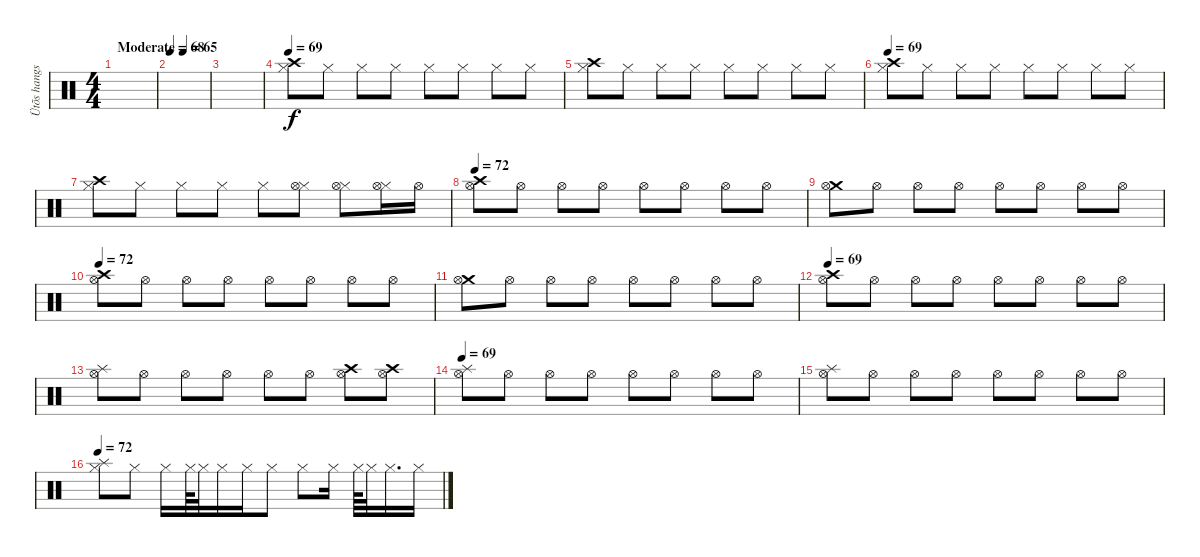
\track ("Ütõs hangszer" "Ütõs hangs") {instrument percussion}
\staff {score}
\articulation defaults
\ts (4 4)
\tempo (65 "Moderate")
\tempo 136
\tempo (65 "Moderate")
\clef neutral
\ks c
|
\tempo 68
|
|
\tempo 69
("Hi-Hat (closed)" "Crash high (hit)").8 "Hi-Hat (closed)".8 "Hi-Hat (closed)".8 "Hi-Hat (closed)".8 "Hi-Hat (closed)".8 "Hi-Hat (closed)".8 "Hi-Hat (closed)".8 "Hi-Hat (closed)".8 |
("Hi-Hat (closed)" "Crash high (hit)").8 "Hi-Hat (closed)".8 "Hi-Hat (closed)".8 "Hi-Hat (closed)".8 "Hi-Hat (closed)".8 "Hi-Hat (closed)".8 "Hi-Hat (closed)".8 "Hi-Hat (closed)".8 |
\tempo 69
("Hi-Hat (closed)" "Crash high (hit)").8 "Hi-Hat (closed)".8 "Hi-Hat (closed)".8 "Hi-Hat (closed)".8 "Hi-Hat (closed)".8 "Hi-Hat (closed)".8 "Hi-Hat (closed)".8 "Hi-Hat (closed)".8 |
("Hi-Hat (closed)" "Crash high (hit)").8 "Hi-Hat (closed)".8 "Hi-Hat (closed)".8 "Hi-Hat (closed)".8 "Hi-Hat (closed)".8 ("Hi-Hat (closed)" "Hi-Hat (open)").8 ("Hi-Hat (closed)" "Hi-Hat (open)").8 ("Hi-Hat (closed)" "Hi-Hat (open)").16 "Hi-Hat (open)".16 |
\tempo 72
("Crash high (hit)" "Hi-Hat (open)").8 "Hi-Hat (open)".8 "Hi-Hat (open)".8 "Hi-Hat (open)".8 "Hi-Hat (open)".8 "Hi-Hat (open)".8 "Hi-Hat (open)".8 "Hi-Hat (open)".8 |
("Crash medium (hit)" "Hi-Hat (open)").8 "Hi-Hat (open)".8 "Hi-Hat (open)".8 "Hi-Hat (open)".8 "Hi-Hat (open)".8 "Hi-Hat (open)".8 "Hi-Hat (open)".8 "Hi-Hat (open)".8 |
\tempo 72
("Crash high (hit)" "Hi-Hat (open)").8 "Hi-Hat (open)".8 "Hi-Hat (open)".8 "Hi-Hat (open)".8 "Hi-Hat (open)".8 "Hi-Hat (open)".8 "Hi-Hat (open)".8 "Hi-Hat (open)".8 |
("Crash medium (hit)" "Hi-Hat (open)").8 "Hi-Hat (open)".8 "Hi-Hat (open)".8 "Hi-Hat (open)".8 "Hi-Hat (open)".8 "Hi-Hat (open)".8 "Hi-Hat (open)".8 "Hi-Hat (open)".8 |
\tempo 69
("Crash high (hit)" "Hi-Hat (open)").8 "Hi-Hat (open)".8 "Hi-Hat (open)".8 "Hi-Hat (open)".8 "Hi-Hat (open)".8 "Hi-Hat (open)".8 "Hi-Hat (open)".8 "Hi-Hat (open)".8 |
("Splash (hit)" "Hi-Hat (open)").8 "Hi-Hat (open)".8 "Hi-Hat (open)".8 "Hi-Hat (open)".8 "Hi-Hat (open)".8 "Hi-Hat (open)".8 ("Crash high (hit)" "Hi-Hat (open)").8 ("Crash high (hit)" "Hi-Hat (open)").8 |
\tempo 69
("Splash (hit)" "Hi-Hat (open)").8 "Hi-Hat (open)".8 "Hi-Hat (open)".8 "Hi-Hat (open)".8 "Hi-Hat (open)".8 "Hi-Hat (open)".8 "Hi-Hat (open)".8 "Hi-Hat (open)".8 |
("Splash (hit)" "Hi-Hat (open)").8 "Hi-Hat (open)".8 "Hi-Hat (open)".8 "Hi-Hat (open)".8 "Hi-Hat (open)".8 "Hi-Hat (open)".8 "Hi-Hat (open)".8 "Hi-Hat (open)".8 |
\tempo 72
("Hi-Hat (closed)" "Splash (hit)").8 "Hi-Hat (closed)".8 "Hi-Hat (closed)".16 "Hi-Hat (closed)".64 "Hi-Hat (closed)".32 "Hi-Hat (closed)".16 "Hi-Hat (closed)".16 "Hi-Hat (closed)".8 "Hi-Hat (closed)".8 "Hi-Hat (closed)".16 "Hi-Hat (closed)".64 "Hi-Hat (closed)".32 "Hi-Hat (closed)".16{d} "Hi-Hat (closed)".16
